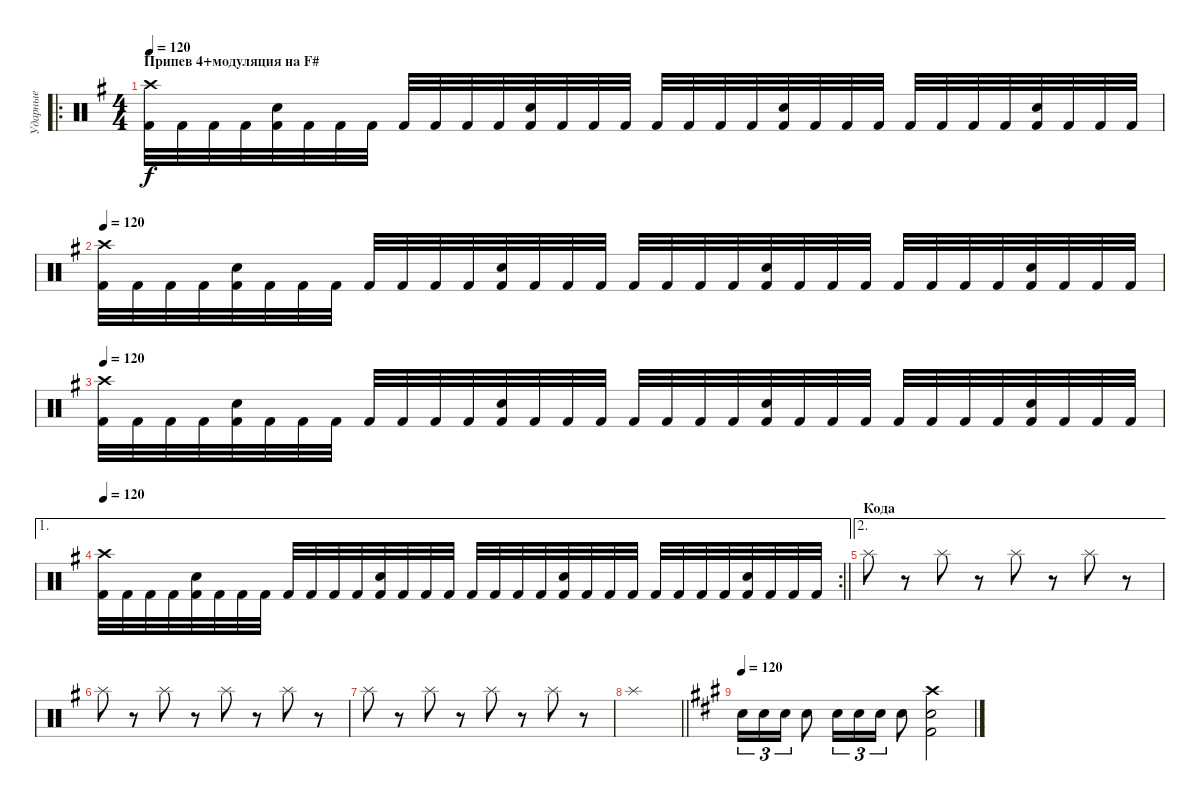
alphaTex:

\track ("Ударные" "Ударные") {solo instrument percussion}
\staff {score}
\articulation defaults
\ro
\ts (4 4)
\section ("" "Припев 4+модуляция на F#")
\tempo 120
\clef neutral
\ks g
("Crash high (hit)" "Kick (hit) 2").32{dy f} "Kick (hit) 2".32 "Kick (hit) 2".32 "Kick (hit) 2".32 ("Kick (hit) 2" "Electric Snare (hit)").32 "Kick (hit) 2".32 "Kick (hit) 2".32 "Kick (hit) 2".32 "Kick (hit) 2".32 "Kick (hit) 2".32 "Kick (hit) 2".32 "Kick (hit) 2".32 ("Kick (hit) 2" "Electric Snare (hit)").32 "Kick (hit) 2".32 "Kick (hit) 2".32 "Kick (hit) 2".32 "Kick (hit) 2".32 "Kick (hit) 2".32 "Kick (hit) 2".32 "Kick (hit) 2".32 ("Kick (hit) 2" "Electric Snare (hit)").32 "Kick (hit) 2".32 "Kick (hit) 2".32 "Kick (hit) 2".32 "Kick (hit) 2".32 "Kick (hit) 2".32 "Kick (hit) 2".32 "Kick (hit) 2".32 ("Kick (hit) 2" "Electric Snare (hit)").32 "Kick (hit) 2".32 "Kick (hit) 2".32 "Kick (hit) 2".32 |
\tempo 120
("Crash high (hit)" "Kick (hit) 2").32 "Kick (hit) 2".32 "Kick (hit) 2".32 "Kick (hit) 2".32 ("Kick (hit) 2" "Electric Snare (hit)").32 "Kick (hit) 2".32 "Kick (hit) 2".32 "Kick (hit) 2".32 "Kick (hit) 2".32 "Kick (hit) 2".32 "Kick (hit) 2".32 "Kick (hit) 2".32 ("Kick (hit) 2" "Electric Snare (hit)").32 "Kick (hit) 2".32 "Kick (hit) 2".32 "Kick (hit) 2".32 "Kick (hit) 2".32 "Kick (hit) 2".32 "Kick (hit) 2".32 "Kick (hit) 2".32 ("Kick (hit) 2" "Electric Snare (hit)").32 "Kick (hit) 2".32 "Kick (hit) 2".32 "Kick (hit) 2".32 "Kick (hit) 2".32 "Kick (hit) 2".32 "Kick (hit) 2".32 "Kick (hit) 2".32 ("Kick (hit) 2" "Electric Snare (hit)").32 "Kick (hit) 2".32 "Kick (hit) 2".32 "Kick (hit) 2".32 |
\tempo 120
("Crash high (hit)" "Kick (hit) 2").32 "Kick (hit) 2".32 "Kick (hit) 2".32 "Kick (hit) 2".32 ("Kick (hit) 2" "Electric Snare (hit)").32 "Kick (hit) 2".32 "Kick (hit) 2".32 "Kick (hit) 2".32 "Kick (hit) 2".32 "Kick (hit) 2".32 "Kick (hit) 2".32 "Kick (hit) 2".32 ("Kick (hit) 2" "Electric Snare (hit)").32 "Kick (hit) 2".32 "Kick (hit) 2".32 "Kick (hit) 2".32 "Kick (hit) 2".32 "Kick (hit) 2".32 "Kick (hit) 2".32 "Kick (hit) 2".32 ("Kick (hit) 2" "Electric Snare (hit)").32 "Kick (hit) 2".32 "Kick (hit) 2".32 "Kick (hit) 2".32 "Kick (hit) 2".32 "Kick (hit) 2".32 "Kick (hit) 2".32 "Kick (hit) 2".32 ("Kick (hit) 2" "Electric Snare (hit)").32 "Kick (hit) 2".32 "Kick (hit) 2".32 "Kick (hit) 2".32 |
\ae 1
\rc 2
\tempo 120
\barLineRight lightlight
("Crash high (hit)" "Kick (hit) 2").32 "Kick (hit) 2".32 "Kick (hit) 2".32 "Kick (hit) 2".32 ("Kick (hit) 2" "Electric Snare (hit)").32 "Kick (hit) 2".32 "Kick (hit) 2".32 "Kick (hit) 2".32 "Kick (hit) 2".32 "Kick (hit) 2".32 "Kick (hit) 2".32 "Kick (hit) 2".32 ("Kick (hit) 2" "Electric Snare (hit)").32 "Kick (hit) 2".32 "Kick (hit) 2".32 "Kick (hit) 2".32 "Kick (hit) 2".32 "Kick (hit) 2".32 "Kick (hit) 2".32 "Kick (hit) 2".32 ("Kick (hit) 2" "Electric Snare (hit)").32 "Kick (hit) 2".32 "Kick (hit) 2".32 "Kick (hit) 2".32 "Kick (hit) 2".32 "Kick (hit) 2".32 "Kick (hit) 2".32 "Kick (hit) 2".32 ("Kick (hit) 2" "Electric Snare (hit)").32 "Kick (hit) 2".32 "Kick (hit) 2".32 "Kick (hit) 2".32 |
\ae 2
\section ("" "Кода")
"Splash (hit)".8 r.8 "Splash (hit)".8 r.8 "Splash (hit)".8 r.8 "Splash (hit)".8 r.8 |
"Splash (hit)".8 r.8 "Splash (hit)".8 r.8 "Splash (hit)".8 r.8 "Splash (hit)".8 r.8 |
"Splash (hit)".8 r.8 "Splash (hit)".8 r.8 "Splash (hit)".8 r.8 "Splash (hit)".8 r.8 |
\barLineRight lightlight "Splash (hit)".1
|
\tempo 120
\ks a "Electric Snare (hit)".16{tu (3 2)} "Electric Snare (hit)".16{tu (3 2)} "Electric Snare (hit)".16{tu (3 2)} "Electric Snare (hit)".8 "Electric Snare (hit)".16{tu (3 2)} "Electric Snare (hit)".16{tu (3 2)} "Electric Snare (hit)".16{tu (3 2)} "Electric Snare (hit)".8
("Kick (hit) 2" "Electric Snare (hit)" "Crash high (hit)").2
